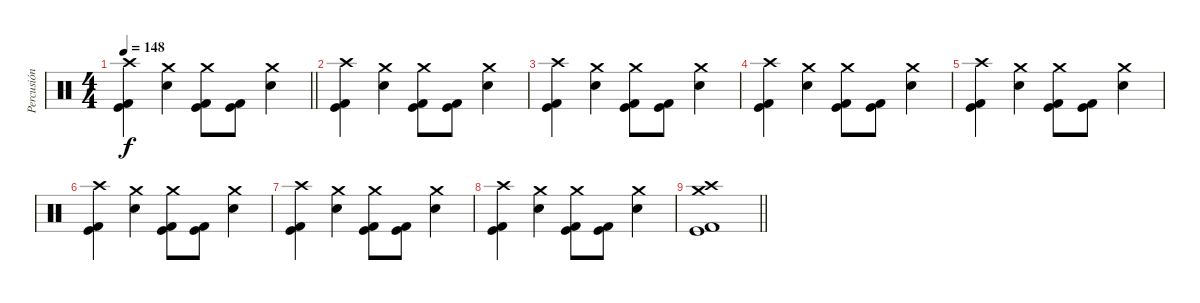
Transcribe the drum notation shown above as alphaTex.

\track ("Percusión" "Percusión") {instrument percussion}
\staff {score}
\articulation defaults
\ts (4 4)
\tempo 148
\clef neutral
\barLineRight lightlight
\ks c
("Crash high (hit)" "Kick (hit)" "Kick (hit) 2").4{dy f} ("Crash medium (hit)" "Electric Snare (hit)").4 ("Crash medium (hit)" "Kick (hit)" "Kick (hit) 2").8 ("Kick (hit)" "Kick (hit) 2").8 ("Crash medium (hit)" "Electric Snare (hit)").4 |
("Crash high (hit)" "Kick (hit)" "Kick (hit) 2").4 ("Crash medium (hit)" "Electric Snare (hit)").4 ("Crash medium (hit)" "Kick (hit)" "Kick (hit) 2").8 ("Kick (hit)" "Kick (hit) 2").8 ("Crash medium (hit)" "Electric Snare (hit)").4 |
("Crash high (hit)" "Kick (hit)" "Kick (hit) 2").4 ("Crash medium (hit)" "Electric Snare (hit)").4 ("Crash medium (hit)" "Kick (hit)" "Kick (hit) 2").8 ("Kick (hit)" "Kick (hit) 2").8 ("Crash medium (hit)" "Electric Snare (hit)").4 |
("Crash high (hit)" "Kick (hit)" "Kick (hit) 2").4 ("Crash medium (hit)" "Electric Snare (hit)").4 ("Crash medium (hit)" "Kick (hit)" "Kick (hit) 2").8 ("Kick (hit)" "Kick (hit) 2").8 ("Crash medium (hit)" "Electric Snare (hit)").4 |
("Crash high (hit)" "Kick (hit)" "Kick (hit) 2").4 ("Crash medium (hit)" "Electric Snare (hit)").4 ("Crash medium (hit)" "Kick (hit)" "Kick (hit) 2").8 ("Kick (hit)" "Kick (hit) 2").8 ("Crash medium (hit)" "Electric Snare (hit)").4 |
("Crash high (hit)" "Kick (hit)" "Kick (hit) 2").4 ("Crash medium (hit)" "Electric Snare (hit)").4 ("Crash medium (hit)" "Kick (hit)" "Kick (hit) 2").8 ("Kick (hit)" "Kick (hit) 2").8 ("Crash medium (hit)" "Electric Snare (hit)").4 |
("Crash high (hit)" "Kick (hit)" "Kick (hit) 2").4 ("Crash medium (hit)" "Electric Snare (hit)").4 ("Crash medium (hit)" "Kick (hit)" "Kick (hit) 2").8 ("Kick (hit)" "Kick (hit) 2").8 ("Crash medium (hit)" "Electric Snare (hit)").4 |
("Crash high (hit)" "Kick (hit)" "Kick (hit) 2").4 ("Crash medium (hit)" "Electric Snare (hit)").4 ("Crash medium (hit)" "Kick (hit)" "Kick (hit) 2").8 ("Kick (hit)" "Kick (hit) 2").8 ("Crash medium (hit)" "Electric Snare (hit)").4 |
\barLineRight lightlight
("Crash high (hit)" "Crash medium (hit)" "Kick (hit)" "Kick (hit) 2").1
